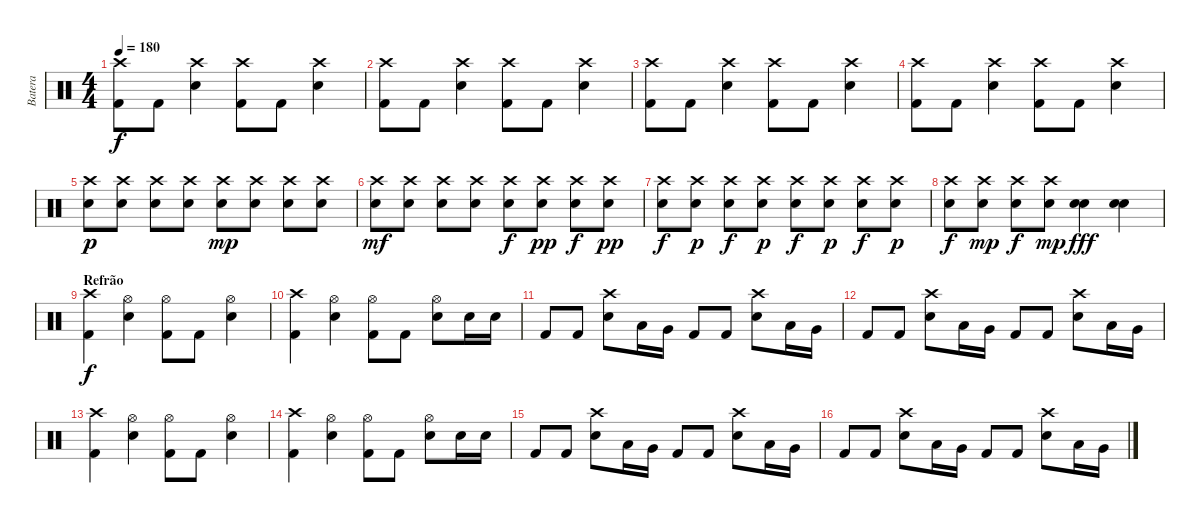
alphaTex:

\track ("Batera" "Batera") {instrument percussion}
\staff {score}
\articulation defaults
\ts (4 4)
\tempo 180
\clef neutral
\ks c
("Crash high (hit)" "Kick (hit) 2").8{dy f} "Kick (hit) 2".8 ("Crash high (hit)" "Snare (hit) 2").4 ("Crash high (hit)" "Kick (hit) 2").8 "Kick (hit) 2".8 ("Crash high (hit)" "Snare (hit) 2").4 |
("Crash high (hit)" "Kick (hit) 2").8 "Kick (hit) 2".8 ("Crash high (hit)" "Snare (hit) 2").4 ("Crash high (hit)" "Kick (hit) 2").8 "Kick (hit) 2".8 ("Crash high (hit)" "Snare (hit) 2").4 |
("Crash high (hit)" "Kick (hit) 2").8 "Kick (hit) 2".8 ("Crash high (hit)" "Snare (hit) 2").4 ("Crash high (hit)" "Kick (hit) 2").8 "Kick (hit) 2".8 ("Crash high (hit)" "Snare (hit) 2").4 |
("Crash high (hit)" "Kick (hit) 2").8 "Kick (hit) 2".8 ("Crash high (hit)" "Snare (hit) 2").4 ("Crash high (hit)" "Kick (hit) 2").8 "Kick (hit) 2".8 ("Crash high (hit)" "Snare (hit) 2").4 |
("Crash high (hit)" "Snare (hit) 2").8{dy p} ("Crash high (hit)" "Snare (hit) 2").8 ("Crash high (hit)" "Snare (hit) 2").8 ("Crash high (hit)" "Snare (hit) 2").8 ("Crash high (hit)" "Snare (hit) 2").8{dy mp} ("Crash high (hit)" "Snare (hit) 2").8 ("Crash high (hit)" "Snare (hit) 2").8 ("Crash high (hit)" "Snare (hit) 2").8 |
("Crash high (hit)" "Snare (hit) 2").8{dy mf} ("Crash high (hit)" "Snare (hit) 2").8 ("Crash high (hit)" "Snare (hit) 2").8 ("Crash high (hit)" "Snare (hit) 2").8 ("Crash high (hit)" "Snare (hit) 2").8{dy f} ("Crash high (hit)" "Snare (hit) 2").8{dy pp} ("Crash high (hit)" "Snare (hit) 2").8{dy f} ("Crash high (hit)" "Snare (hit) 2").8{dy pp} |
("Crash high (hit)" "Snare (hit) 2").8{dy f} ("Crash high (hit)" "Snare (hit) 2").8{dy p} ("Crash high (hit)" "Snare (hit) 2").8{dy f} ("Crash high (hit)" "Snare (hit) 2").8{dy p} ("Crash high (hit)" "Snare (hit) 2").8{dy f} ("Crash high (hit)" "Snare (hit) 2").8{dy p} ("Crash high (hit)" "Snare (hit) 2").8{dy f} ("Crash high (hit)" "Snare (hit) 2").8{dy p} |
("Crash high (hit)" "Snare (hit) 2").8{dy f} ("Crash high (hit)" "Snare (hit) 2").8{dy mp} ("Crash high (hit)" "Snare (hit) 2").8{dy f} ("Crash high (hit)" "Snare (hit) 2").8{dy mp} ("Snare (hit) 2" "Snare (hit) 2").4{dy fff} ("Snare (hit) 2" "Snare (hit) 2").4 |
\section ("" "Refrão")
("Crash high (hit)" "Kick (hit) 2").4{dy f} ("Hi-Hat (open)" "Snare (hit) 2").4 ("Hi-Hat (open)" "Kick (hit) 2").8 "Kick (hit) 2".8 ("Hi-Hat (open)" "Snare (hit) 2").4 |
("Crash high (hit)" "Kick (hit) 2").4 ("Hi-Hat (open)" "Snare (hit) 2").4 ("Hi-Hat (open)" "Kick (hit) 2").8 "Kick (hit) 2".8 ("Hi-Hat (open)" "Snare (hit) 2").8 "Snare (hit) 2".16 "Snare (hit) 2".16 |
"Kick (hit) 2".8 "Kick (hit) 2".8 ("Crash high (hit)" "Snare (hit) 2").8 "Low Tom (hit)".16 "Very Low Tom (hit)".16 "Kick (hit) 2".8 "Kick (hit) 2".8 ("Crash high (hit)" "Snare (hit) 2").8 "Low Tom (hit)".16 "Very Low Tom (hit)".16 |
"Kick (hit) 2".8 "Kick (hit) 2".8 ("Crash high (hit)" "Snare (hit) 2").8 "Low Tom (hit)".16 "Very Low Tom (hit)".16 "Kick (hit) 2".8 "Kick (hit) 2".8 ("Crash high (hit)" "Snare (hit) 2").8 "Low Tom (hit)".16 "Very Low Tom (hit)".16 |
("Crash high (hit)" "Kick (hit) 2").4 ("Hi-Hat (open)" "Snare (hit) 2").4 ("Hi-Hat (open)" "Kick (hit) 2").8 "Kick (hit) 2".8 ("Hi-Hat (open)" "Snare (hit) 2").4 |
("Crash high (hit)" "Kick (hit) 2").4 ("Hi-Hat (open)" "Snare (hit) 2").4 ("Hi-Hat (open)" "Kick (hit) 2").8 "Kick (hit) 2".8 ("Hi-Hat (open)" "Snare (hit) 2").8 "Snare (hit) 2".16 "Snare (hit) 2".16 |
"Kick (hit) 2".8 "Kick (hit) 2".8 ("Crash high (hit)" "Snare (hit) 2").8 "Low Tom (hit)".16 "Very Low Tom (hit)".16 "Kick (hit) 2".8 "Kick (hit) 2".8 ("Crash high (hit)" "Snare (hit) 2").8 "Low Tom (hit)".16 "Very Low Tom (hit)".16 |
"Kick (hit) 2".8 "Kick (hit) 2".8 ("Crash high (hit)" "Snare (hit) 2").8 "Low Tom (hit)".16 "Very Low Tom (hit)".16 "Kick (hit) 2".8 "Kick (hit) 2".8 ("Crash high (hit)" "Snare (hit) 2").8 "Low Tom (hit)".16 "Very Low Tom (hit)".16
